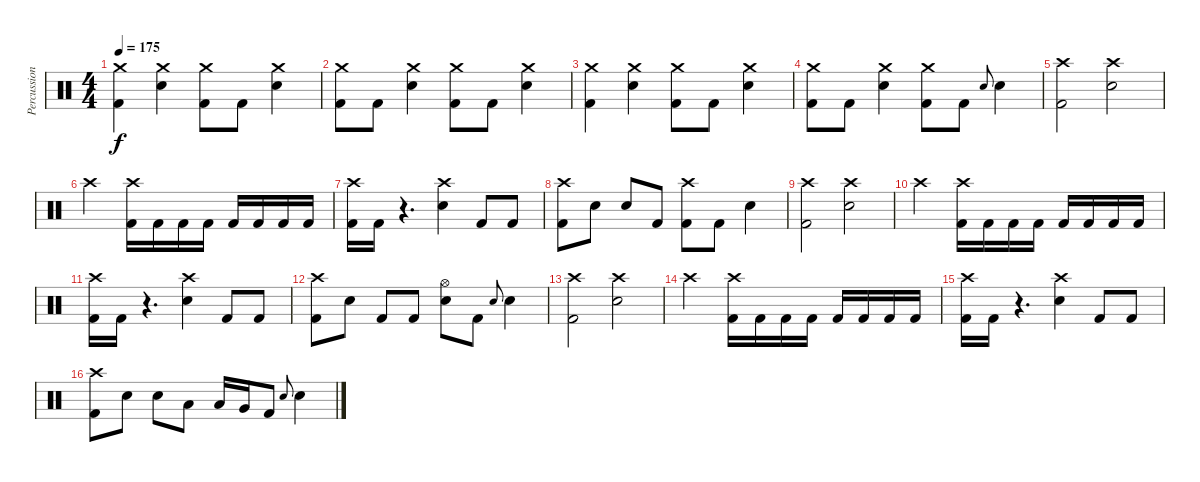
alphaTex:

\track ("Percussion" "Percussion") {instrument percussion}
\staff {score}
\articulation defaults
\ts (4 4)
\tempo 175
\clef neutral
\ks c
("Crash medium (hit)" "Kick (hit) 2").4{dy f} ("Crash medium (hit)" "Electric Snare (hit)").4 ("Crash medium (hit)" "Kick (hit) 2").8 "Kick (hit) 2".8 ("Crash medium (hit)" "Electric Snare (hit)").4 |
("Crash medium (hit)" "Kick (hit) 2").8 "Kick (hit) 2".8 ("Crash medium (hit)" "Electric Snare (hit)").4 ("Crash medium (hit)" "Kick (hit) 2").8 "Kick (hit) 2".8 ("Crash medium (hit)" "Electric Snare (hit)").4 |
("Crash medium (hit)" "Kick (hit) 2").4 ("Crash medium (hit)" "Electric Snare (hit)").4 ("Crash medium (hit)" "Kick (hit) 2").8 "Kick (hit) 2".8 ("Crash medium (hit)" "Electric Snare (hit)").4 |
("Crash medium (hit)" "Kick (hit) 2").8 "Kick (hit) 2".8 ("Crash medium (hit)" "Electric Snare (hit)").4 ("Crash medium (hit)" "Kick (hit) 2").8 "Kick (hit) 2".8 "Electric Snare (hit)".8{gr onbeat} "Electric Snare (hit)".4 |
("Crash high (hit)" "Kick (hit) 2").2 ("Crash high (hit)" "Electric Snare (hit)").2 |
"Crash high (hit)".2 ("Crash high (hit)" "Kick (hit) 2").16 "Kick (hit) 2".16 "Kick (hit) 2".16 "Kick (hit) 2".16 "Kick (hit) 2".16 "Kick (hit) 2".16 "Kick (hit) 2".16 "Kick (hit) 2".16 |
("Crash high (hit)" "Kick (hit) 2").16 "Kick (hit) 2".16 r.4{d} ("Crash high (hit)" "Electric Snare (hit)").4 "Kick (hit) 2".8 "Kick (hit) 2".8 |
("Crash high (hit)" "Kick (hit) 2").8 "Electric Snare (hit)".8 "Electric Snare (hit)".8 "Kick (hit) 2".8 ("Crash high (hit)" "Kick (hit) 2").8 "Kick (hit) 2".8 "Electric Snare (hit)".4 |
("Crash high (hit)" "Kick (hit) 2").2 ("Crash high (hit)" "Electric Snare (hit)").2 |
"Crash high (hit)".2 ("Crash high (hit)" "Kick (hit) 2").16 "Kick (hit) 2".16 "Kick (hit) 2".16 "Kick (hit) 2".16 "Kick (hit) 2".16 "Kick (hit) 2".16 "Kick (hit) 2".16 "Kick (hit) 2".16 |
("Crash high (hit)" "Kick (hit) 2").16 "Kick (hit) 2".16 r.4{d} ("Crash high (hit)" "Electric Snare (hit)").4 "Kick (hit) 2".8 "Kick (hit) 2".8 |
("Crash high (hit)" "Kick (hit) 2").8 "Electric Snare (hit)".8 "Kick (hit) 2".8 "Kick (hit) 2".8 ("Hi-Hat (open)" "Electric Snare (hit)").8 "Kick (hit) 2".8 "Electric Snare (hit)".8{gr onbeat} "Electric Snare (hit)".4 |
("Crash high (hit)" "Kick (hit) 2").2 ("Crash high (hit)" "Electric Snare (hit)").2 |
"Crash high (hit)".2 ("Crash high (hit)" "Kick (hit) 2").16 "Kick (hit) 2".16 "Kick (hit) 2".16 "Kick (hit) 2".16 "Kick (hit) 2".16 "Kick (hit) 2".16 "Kick (hit) 2".16 "Kick (hit) 2".16 |
("Crash high (hit)" "Kick (hit) 2").16 "Kick (hit) 2".16 r.4{d} ("Crash high (hit)" "Electric Snare (hit)").4 "Kick (hit) 2".8 "Kick (hit) 2".8 |
("Crash high (hit)" "Kick (hit) 2").8 "Electric Snare (hit)".8 "Electric Snare (hit)".8 "Low Tom (hit)".8 "Low Tom (hit)".16 "Very Low Tom (hit)".16 "Kick (hit) 2".8 "Electric Snare (hit)".8{gr onbeat} "Electric Snare (hit)".4
